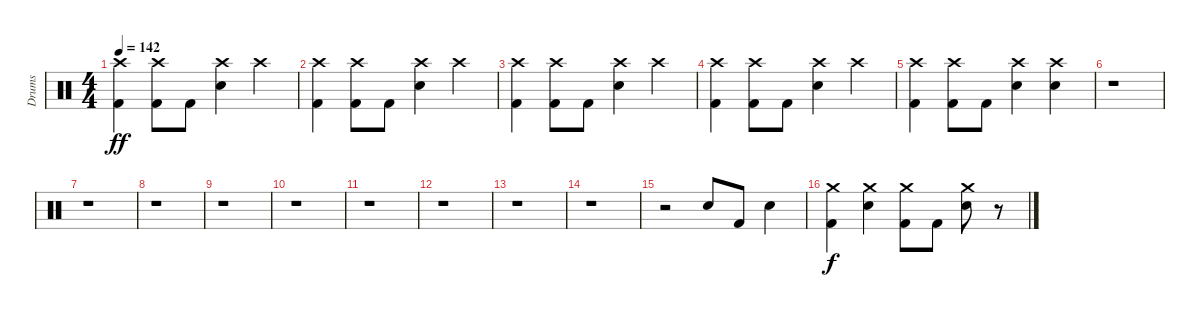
\track ("Drums" "Drums") {instrument percussion}
\staff {score}
\articulation defaults
\ts (4 4)
\tempo 142
\clef neutral
\ks c
("Crash high (hit)" "Kick (hit) 2").4{dy ff} ("Crash high (hit)" "Kick (hit) 2").8 "Kick (hit) 2".8 ("Crash high (hit)" "Snare (hit) 2").4 "Crash high (hit)".4 |
("Crash high (hit)" "Kick (hit) 2").4 ("Crash high (hit)" "Kick (hit) 2").8 "Kick (hit) 2".8 ("Crash high (hit)" "Snare (hit) 2").4 "Crash high (hit)".4 |
("Crash high (hit)" "Kick (hit) 2").4 ("Crash high (hit)" "Kick (hit) 2").8 "Kick (hit) 2".8 ("Crash high (hit)" "Snare (hit) 2").4 "Crash high (hit)".4 |
("Crash high (hit)" "Kick (hit) 2").4 ("Crash high (hit)" "Kick (hit) 2").8 "Kick (hit) 2".8 ("Crash high (hit)" "Snare (hit) 2").4 "Crash high (hit)".4 |
("Crash high (hit)" "Kick (hit) 2").4 ("Crash high (hit)" "Kick (hit) 2").8 "Kick (hit) 2".8 ("Crash high (hit)" "Snare (hit) 2").4 ("Crash high (hit)" "Snare (hit) 2").4 |
r.1 |
r.1 |
r.1 |
r.1 |
r.1 |
r.1 |
r.1 |
r.1 |
r.1 |
r.2 "Snare (hit) 2".8 "Kick (hit) 2".8 "Snare (hit) 2".4 |
("Crash medium (hit)" "Kick (hit) 2").4{dy f} ("Crash medium (hit)" "Snare (hit) 2").4 ("Crash medium (hit)" "Kick (hit) 2").8 "Kick (hit) 2".8 ("Crash medium (hit)" "Snare (hit) 2").8 r.8
